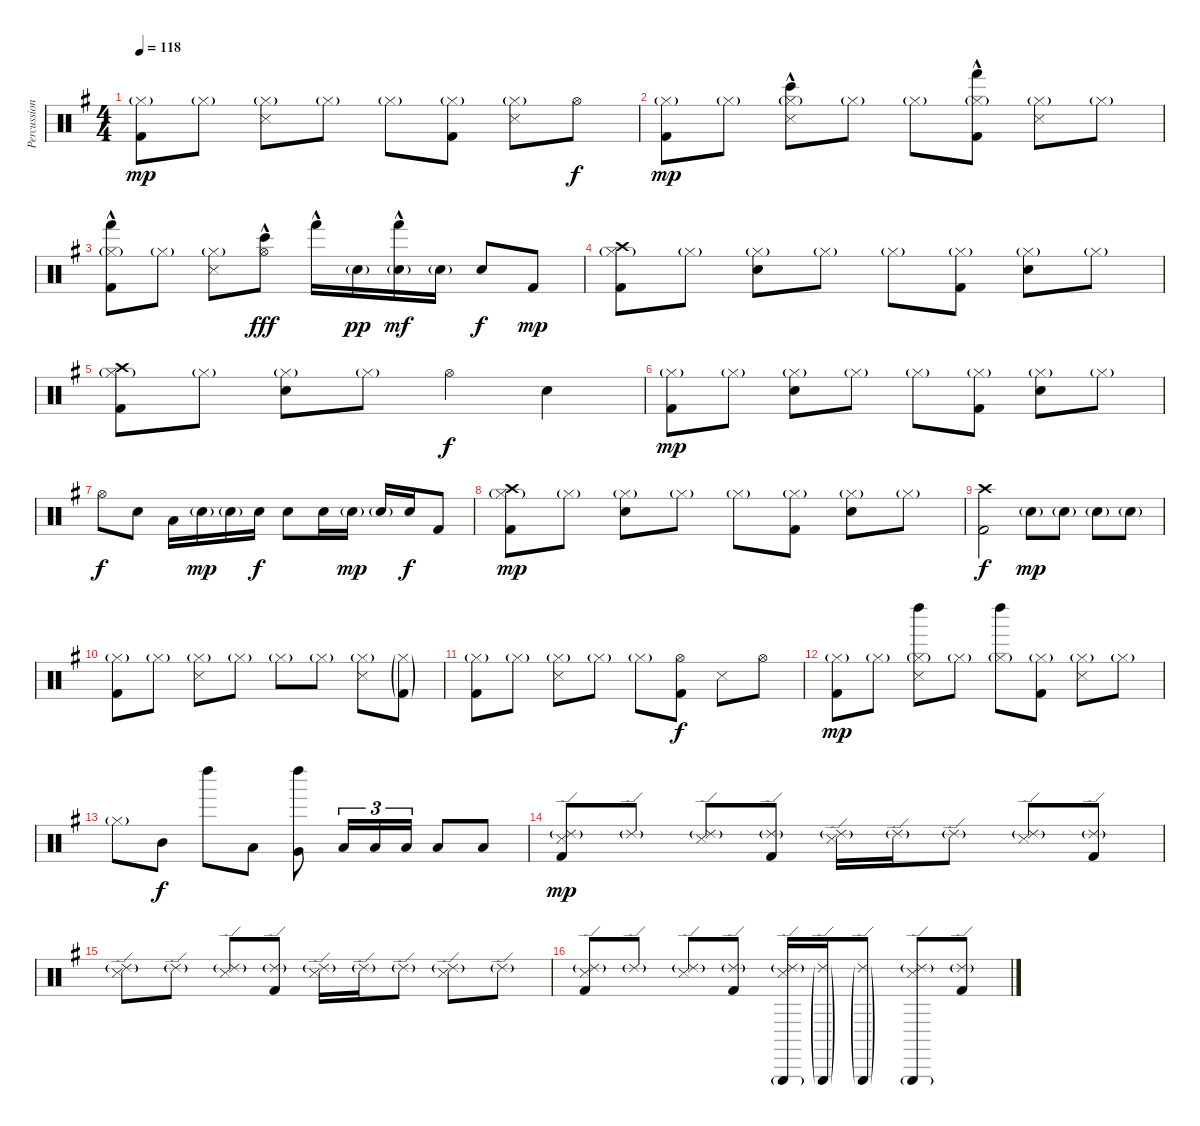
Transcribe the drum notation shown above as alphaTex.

\track ("Percussion" "Percussion") {instrument percussion}
\staff {score}
\articulation defaults
\ts (4 4)
\tempo 118
\clef neutral
\ks eminor
("Hi-Hat (closed)"{g} "Kick (hit) 2").8{dy mp} "Hi-Hat (closed)"{g}.8 ("Hi-Hat (closed)"{g} "Snare (side stick) 3").8 "Hi-Hat (closed)"{g}.8 "Hi-Hat (closed)"{g}.8 ("Hi-Hat (closed)"{g} "Kick (hit) 2").8 ("Hi-Hat (closed)"{g} "Snare (side stick) 3").8 "Hi-Hat (open)".8{dy f} |
("Hi-Hat (closed)"{g} "Kick (hit) 2").8{dy mp} "Hi-Hat (closed)"{g}.8 ("Bongo High (hit)"{hac} "Hi-Hat (closed)"{g} "Snare (side stick) 3").8 "Hi-Hat (closed)"{g}.8 "Hi-Hat (closed)"{g}.8 ("Hand (hit)"{hac} "Hi-Hat (closed)"{g} "Kick (hit) 2").8 ("Hi-Hat (closed)"{g} "Snare (side stick) 3").8 "Hi-Hat (closed)"{g}.8 |
("Hand (hit)"{hac} "Hi-Hat (closed)"{g} "Kick (hit) 2").8 "Hi-Hat (closed)"{g}.8 ("Hi-Hat (closed)"{g} "Snare (side stick) 3").8 ("Bongo High (hit)"{hac} "Hi-Hat (open)").8{dy fff} "Hand (hit)"{hac}.16 "Electric Snare (hit)"{g}.16{dy pp} ("Hand (hit)"{hac} "Electric Snare (hit)"{g}).16{dy mf} "Electric Snare (hit)"{g}.16 "Electric Snare (hit)".8{dy f} "Kick (hit) 2".8{dy mp} |
("Crash high (hit)" "Hi-Hat (closed)"{g} "Kick (hit) 2").8 "Hi-Hat (closed)"{g}.8 ("Hi-Hat (closed)"{g} "Electric Snare (hit)").8 "Hi-Hat (closed)"{g}.8 "Hi-Hat (closed)"{g}.8 ("Hi-Hat (closed)"{g} "Kick (hit) 2").8 ("Hi-Hat (closed)"{g} "Electric Snare (hit)").8 "Hi-Hat (closed)"{g}.8 |
("Crash high (hit)" "Hi-Hat (closed)"{g} "Kick (hit) 2").8 "Hi-Hat (closed)"{g}.8 ("Hi-Hat (closed)"{g} "Electric Snare (hit)").8 "Hi-Hat (closed)"{g}.8 "Hi-Hat (open)".4{dy f} "Electric Snare (hit)".4 |
("Hi-Hat (closed)"{g} "Kick (hit) 2").8{dy mp} "Hi-Hat (closed)"{g}.8 ("Hi-Hat (closed)"{g} "Electric Snare (hit)").8 "Hi-Hat (closed)"{g}.8 "Hi-Hat (closed)"{g}.8 ("Hi-Hat (closed)"{g} "Kick (hit) 2").8 ("Hi-Hat (closed)"{g} "Electric Snare (hit)").8 "Hi-Hat (closed)"{g}.8 |
"Hi-Hat (open)".8{dy f} "Electric Snare (hit)".8 "Low Tom (hit)".16 "Electric Snare (hit)"{g}.16{dy mp} "Electric Snare (hit)"{g}.16 "Electric Snare (hit)".16{dy f} "Electric Snare (hit)".8 "Electric Snare (hit)".16 "Electric Snare (hit)"{g}.16{dy mp} "Electric Snare (hit)"{g}.16 "Electric Snare (hit)".16{dy f} "Kick (hit) 2".8 |
("Crash high (hit)" "Hi-Hat (closed)"{g} "Kick (hit) 2").8{dy mp} "Hi-Hat (closed)"{g}.8 ("Hi-Hat (closed)"{g} "Electric Snare (hit)").8 "Hi-Hat (closed)"{g}.8 "Hi-Hat (closed)"{g}.8 ("Hi-Hat (closed)"{g} "Kick (hit) 2").8 ("Hi-Hat (closed)"{g} "Electric Snare (hit)").8 "Hi-Hat (closed)"{g}.8 |
("Crash high (hit)" "Kick (hit) 2").2{dy f} "Electric Snare (hit)"{g}.8{dy mp} "Electric Snare (hit)"{g}.8 "Electric Snare (hit)"{g}.8 "Electric Snare (hit)"{g}.8 |
("Hi-Hat (closed)"{g} "Kick (hit) 2").8 "Hi-Hat (closed)"{g}.8 ("Hi-Hat (closed)"{g} "Snare (side stick) 3").8 "Hi-Hat (closed)"{g}.8 "Hi-Hat (closed)"{g}.8 "Hi-Hat (closed)"{g}.8 ("Hi-Hat (closed)"{g} "Snare (side stick) 3").8 ("Hi-Hat (closed)"{g} "Kick (hit) 2"{g}).8 |
("Hi-Hat (closed)"{g} "Kick (hit) 2").8 "Hi-Hat (closed)"{g}.8 ("Hi-Hat (closed)"{g} "Snare (side stick) 3").8 "Hi-Hat (closed)"{g}.8 "Hi-Hat (closed)"{g}.8 ("Hi-Hat (open)" "Kick (hit) 2").8{dy f} "Snare (side stick) 3".8 "Hi-Hat (open)".8 |
("Hi-Hat (closed)"{g} "Kick (hit) 2").8{dy mp} "Hi-Hat (closed)"{g}.8 ("Left Maraca (hit)" "Hi-Hat (closed)"{g} "Snare (side stick) 3").8 "Hi-Hat (closed)"{g}.8 ("Left Maraca (hit)" "Hi-Hat (closed)"{g}).8 ("Hi-Hat (closed)"{g} "Kick (hit) 2").8 ("Hi-Hat (closed)"{g} "Snare (side stick) 3").8 "Hi-Hat (closed)"{g}.8 |
"Hi-Hat (closed)"{g}.8 "Mid Tom (hit)".8{dy f} "Left Maraca (hit)".8 "Low Tom (hit)".8 ("Left Maraca (hit)" "Very Low Tom (hit)").8 "Low Floor Tom (hit)".16{tu (3 2)} "Low Floor Tom (hit)".16{tu (3 2)} "Low Floor Tom (hit)".16{tu (3 2)} "Low Floor Tom (hit)".8 "Low Floor Tom (hit)".8 |
("Ride (edge) 2"{g} "Snare (side stick) 3" "Kick (hit) 2").8{dy mp} "Ride (edge) 2"{g}.8 ("Ride (edge) 2"{g} "Snare (side stick) 3").8 ("Ride (edge) 2"{g} "Kick (hit) 2").8 ("Ride (edge) 2"{g} "Snare (side stick) 3").16 "Ride (edge) 2"{g}.16 "Ride (edge) 2"{g}.8 ("Ride (edge) 2"{g} "Snare (side stick) 3").8 ("Ride (edge) 2"{g} "Kick (hit) 2").8 |
("Ride (edge) 2"{g} "Snare (side stick) 3").8 "Ride (edge) 2"{g}.8 ("Ride (edge) 2"{g} "Snare (side stick) 3").8 ("Ride (edge) 2"{g} "Kick (hit) 2").8 ("Ride (edge) 2"{g} "Snare (side stick) 3").16 "Ride (edge) 2"{g}.16 "Ride (edge) 2"{g}.8 ("Ride (edge) 2"{g} "Snare (side stick) 3").8 "Ride (edge) 2"{g}.8 |
("Ride (edge) 2"{g} "Snare (side stick) 3" "Kick (hit) 2").8 "Ride (edge) 2"{g}.8 ("Ride (edge) 2"{g} "Snare (side stick) 3").8 ("Ride (edge) 2"{g} "Kick (hit) 2").8 ("Triangle (hit)"{g} "Ride (edge) 2"{g} "Snare (side stick) 3").16 ("Triangle (hit)"{g} "Ride (edge) 2"{g}).16 ("Triangle (hit)"{g} "Ride (edge) 2"{g}).8 ("Triangle (hit)"{g} "Ride (edge) 2"{g} "Snare (side stick) 3").8 ("Ride (edge) 2"{g} "Kick (hit) 2").8
